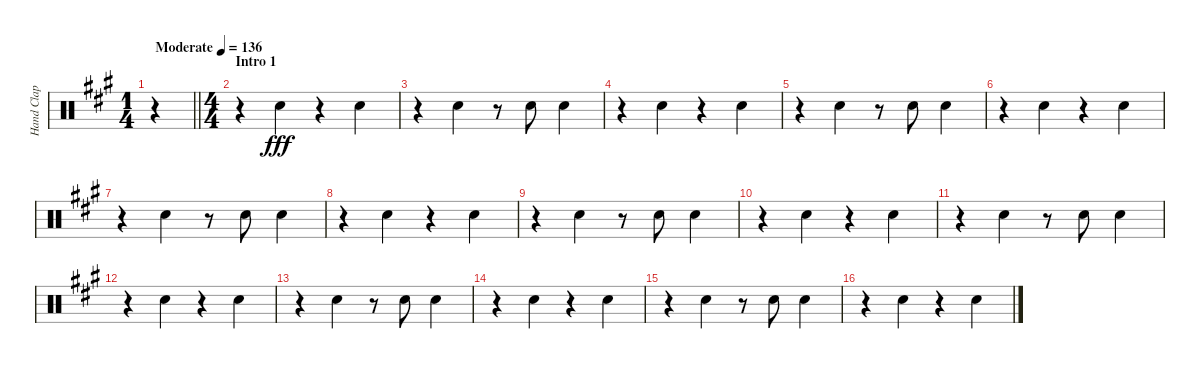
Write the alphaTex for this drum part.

\track ("Hand Clap" "Hand Clap") {instrument percussion}
\staff {score}
\articulation defaults
\ts (1 4)
\tempo (136 "Moderate")
\clef neutral
\barLineRight lightlight
\ks a
r.4{dy fff} |
\ts (4 4)
\section ("" "Intro 1")
r.4 "Hand Clap (hit)".4 r.4 "Hand Clap (hit)".4 |
r.4 "Hand Clap (hit)".4 r.8 "Hand Clap (hit)".8 "Hand Clap (hit)".4 |
r.4 "Hand Clap (hit)".4 r.4 "Hand Clap (hit)".4 |
r.4 "Hand Clap (hit)".4 r.8 "Hand Clap (hit)".8 "Hand Clap (hit)".4 |
r.4 "Hand Clap (hit)".4 r.4 "Hand Clap (hit)".4 |
r.4 "Hand Clap (hit)".4 r.8 "Hand Clap (hit)".8 "Hand Clap (hit)".4 |
r.4 "Hand Clap (hit)".4 r.4 "Hand Clap (hit)".4 |
r.4 "Hand Clap (hit)".4 r.8 "Hand Clap (hit)".8 "Hand Clap (hit)".4 |
r.4 "Hand Clap (hit)".4 r.4 "Hand Clap (hit)".4 |
r.4 "Hand Clap (hit)".4 r.8 "Hand Clap (hit)".8 "Hand Clap (hit)".4 |
r.4 "Hand Clap (hit)".4 r.4 "Hand Clap (hit)".4 |
r.4 "Hand Clap (hit)".4 r.8 "Hand Clap (hit)".8 "Hand Clap (hit)".4 |
r.4 "Hand Clap (hit)".4 r.4 "Hand Clap (hit)".4 |
r.4 "Hand Clap (hit)".4 r.8 "Hand Clap (hit)".8 "Hand Clap (hit)".4 |
r.4 "Hand Clap (hit)".4 r.4 "Hand Clap (hit)".4
